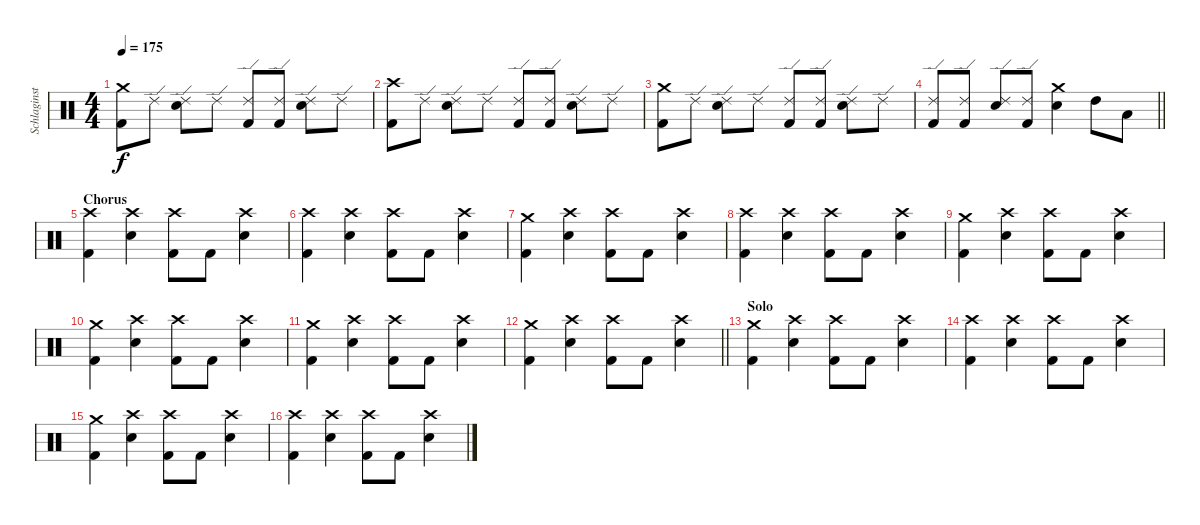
\track ("Schlaginstrumente - Auswahl" "Schlaginst") {instrument percussion}
\staff {score}
\articulation defaults
\ts (4 4)
\tempo 175
\clef neutral
\ks c
("Crash medium (hit)" "Kick (hit) 2").8{dy f} "Ride (edge) 2".8 ("Ride (edge) 2" "Snare (hit) 2").8 "Ride (edge) 2".8 ("Ride (edge) 2" "Kick (hit) 2").8 ("Ride (edge) 2" "Kick (hit) 2").8 ("Ride (edge) 2" "Snare (hit) 2").8 "Ride (edge) 2".8 |
("Crash high (hit)" "Kick (hit) 2").8 "Ride (edge) 2".8 ("Ride (edge) 2" "Snare (hit) 2").8 "Ride (edge) 2".8 ("Ride (edge) 2" "Kick (hit) 2").8 ("Ride (edge) 2" "Kick (hit) 2").8 ("Ride (edge) 2" "Snare (hit) 2").8 "Ride (edge) 2".8 |
("Crash medium (hit)" "Kick (hit) 2").8 "Ride (edge) 2".8 ("Ride (edge) 2" "Snare (hit) 2").8 "Ride (edge) 2".8 ("Ride (edge) 2" "Kick (hit) 2").8 ("Ride (edge) 2" "Kick (hit) 2").8 ("Ride (edge) 2" "Snare (hit) 2").8 "Ride (edge) 2".8 |
\barLineRight lightlight
("Ride (edge) 2" "Kick (hit) 2").8 ("Ride (edge) 2" "Kick (hit) 2").8 ("Ride (edge) 2" "Snare (hit) 2").8 ("Ride (edge) 2" "Kick (hit) 2").8 ("Crash medium (hit)" "Snare (hit) 2").4 "High Tom (hit)".8 "Low Tom (hit)".8 |
\section ("" "Chorus")
("Crash high (hit)" "Kick (hit) 2").4 ("Crash high (hit)" "Snare (hit) 2").4 ("Crash high (hit)" "Kick (hit) 2").8 "Kick (hit) 2".8 ("Crash high (hit)" "Snare (hit) 2").4 |
("Crash high (hit)" "Kick (hit) 2").4 ("Crash high (hit)" "Snare (hit) 2").4 ("Crash high (hit)" "Kick (hit) 2").8 "Kick (hit) 2".8 ("Crash high (hit)" "Snare (hit) 2").4 |
("Crash medium (hit)" "Kick (hit) 2").4 ("Crash high (hit)" "Snare (hit) 2").4 ("Crash high (hit)" "Kick (hit) 2").8 "Kick (hit) 2".8 ("Crash high (hit)" "Snare (hit) 2").4 |
("Crash high (hit)" "Kick (hit) 2").4 ("Crash high (hit)" "Snare (hit) 2").4 ("Crash high (hit)" "Kick (hit) 2").8 "Kick (hit) 2".8 ("Crash high (hit)" "Snare (hit) 2").4 |
("Crash medium (hit)" "Kick (hit) 2").4 ("Crash high (hit)" "Snare (hit) 2").4 ("Crash high (hit)" "Kick (hit) 2").8 "Kick (hit) 2".8 ("Crash high (hit)" "Snare (hit) 2").4 |
("Crash medium (hit)" "Kick (hit) 2").4 ("Crash high (hit)" "Snare (hit) 2").4 ("Crash high (hit)" "Kick (hit) 2").8 "Kick (hit) 2".8 ("Crash high (hit)" "Snare (hit) 2").4 |
("Crash medium (hit)" "Kick (hit) 2").4 ("Crash high (hit)" "Snare (hit) 2").4 ("Crash high (hit)" "Kick (hit) 2").8 "Kick (hit) 2".8 ("Crash high (hit)" "Snare (hit) 2").4 |
\barLineRight lightlight
("Crash medium (hit)" "Kick (hit) 2").4 ("Crash high (hit)" "Snare (hit) 2").4 ("Crash high (hit)" "Kick (hit) 2").8 "Kick (hit) 2".8 ("Crash high (hit)" "Snare (hit) 2").4 |
\section ("" "Solo")
("Crash medium (hit)" "Kick (hit) 2").4 ("Crash high (hit)" "Snare (hit) 2").4 ("Crash high (hit)" "Kick (hit) 2").8 "Kick (hit) 2".8 ("Crash high (hit)" "Snare (hit) 2").4 |
("Crash high (hit)" "Kick (hit) 2").4 ("Crash high (hit)" "Snare (hit) 2").4 ("Crash high (hit)" "Kick (hit) 2").8 "Kick (hit) 2".8 ("Crash high (hit)" "Snare (hit) 2").4 |
("Crash medium (hit)" "Kick (hit) 2").4 ("Crash high (hit)" "Snare (hit) 2").4 ("Crash high (hit)" "Kick (hit) 2").8 "Kick (hit) 2".8 ("Crash high (hit)" "Snare (hit) 2").4 |
("Crash high (hit)" "Kick (hit) 2").4 ("Crash high (hit)" "Snare (hit) 2").4 ("Crash high (hit)" "Kick (hit) 2").8 "Kick (hit) 2".8 ("Crash high (hit)" "Snare (hit) 2").4
